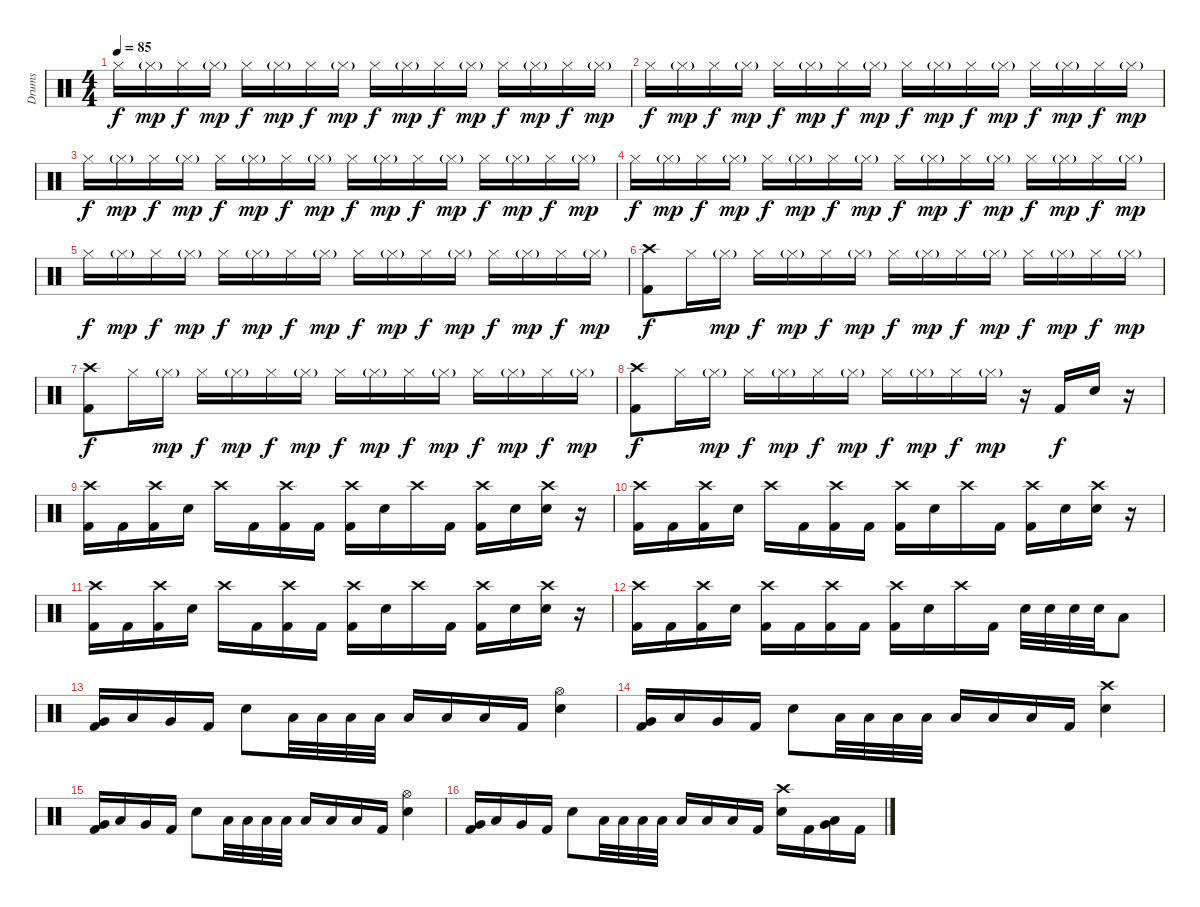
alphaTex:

\track ("Drums" "Drums") {instrument percussion}
\staff {score}
\articulation defaults
\ts (4 4)
\tempo 85
\clef neutral
\ks c "Hi-Hat (closed)".16{dy f} "Hi-Hat (closed)"{g}.16{dy mp} "Hi-Hat (closed)".16{dy f} "Hi-Hat (closed)"{g}.16{dy mp} "Hi-Hat (closed)".16{dy f} "Hi-Hat (closed)"{g}.16{dy mp} "Hi-Hat (closed)".16{dy f} "Hi-Hat (closed)"{g}.16{dy mp} "Hi-Hat (closed)".16{dy f} "Hi-Hat (closed)"{g}.16{dy mp} "Hi-Hat (closed)".16{dy f} "Hi-Hat (closed)"{g}.16{dy mp} "Hi-Hat (closed)".16{dy f} "Hi-Hat (closed)"{g}.16{dy mp} "Hi-Hat (closed)".16{dy f} "Hi-Hat (closed)"{g}.16{dy mp}
|
"Hi-Hat (closed)".16{dy f} "Hi-Hat (closed)"{g}.16{dy mp} "Hi-Hat (closed)".16{dy f} "Hi-Hat (closed)"{g}.16{dy mp} "Hi-Hat (closed)".16{dy f} "Hi-Hat (closed)"{g}.16{dy mp} "Hi-Hat (closed)".16{dy f} "Hi-Hat (closed)"{g}.16{dy mp} "Hi-Hat (closed)".16{dy f} "Hi-Hat (closed)"{g}.16{dy mp} "Hi-Hat (closed)".16{dy f} "Hi-Hat (closed)"{g}.16{dy mp} "Hi-Hat (closed)".16{dy f} "Hi-Hat (closed)"{g}.16{dy mp} "Hi-Hat (closed)".16{dy f} "Hi-Hat (closed)"{g}.16{dy mp} |
"Hi-Hat (closed)".16{dy f} "Hi-Hat (closed)"{g}.16{dy mp} "Hi-Hat (closed)".16{dy f} "Hi-Hat (closed)"{g}.16{dy mp} "Hi-Hat (closed)".16{dy f} "Hi-Hat (closed)"{g}.16{dy mp} "Hi-Hat (closed)".16{dy f} "Hi-Hat (closed)"{g}.16{dy mp} "Hi-Hat (closed)".16{dy f} "Hi-Hat (closed)"{g}.16{dy mp} "Hi-Hat (closed)".16{dy f} "Hi-Hat (closed)"{g}.16{dy mp} "Hi-Hat (closed)".16{dy f} "Hi-Hat (closed)"{g}.16{dy mp} "Hi-Hat (closed)".16{dy f} "Hi-Hat (closed)"{g}.16{dy mp} |
"Hi-Hat (closed)".16{dy f} "Hi-Hat (closed)"{g}.16{dy mp} "Hi-Hat (closed)".16{dy f} "Hi-Hat (closed)"{g}.16{dy mp} "Hi-Hat (closed)".16{dy f} "Hi-Hat (closed)"{g}.16{dy mp} "Hi-Hat (closed)".16{dy f} "Hi-Hat (closed)"{g}.16{dy mp} "Hi-Hat (closed)".16{dy f} "Hi-Hat (closed)"{g}.16{dy mp} "Hi-Hat (closed)".16{dy f} "Hi-Hat (closed)"{g}.16{dy mp} "Hi-Hat (closed)".16{dy f} "Hi-Hat (closed)"{g}.16{dy mp} "Hi-Hat (closed)".16{dy f} "Hi-Hat (closed)"{g}.16{dy mp} |
"Hi-Hat (closed)".16{dy f} "Hi-Hat (closed)"{g}.16{dy mp} "Hi-Hat (closed)".16{dy f} "Hi-Hat (closed)"{g}.16{dy mp} "Hi-Hat (closed)".16{dy f} "Hi-Hat (closed)"{g}.16{dy mp} "Hi-Hat (closed)".16{dy f} "Hi-Hat (closed)"{g}.16{dy mp} "Hi-Hat (closed)".16{dy f} "Hi-Hat (closed)"{g}.16{dy mp} "Hi-Hat (closed)".16{dy f} "Hi-Hat (closed)"{g}.16{dy mp} "Hi-Hat (closed)".16{dy f} "Hi-Hat (closed)"{g}.16{dy mp} "Hi-Hat (closed)".16{dy f} "Hi-Hat (closed)"{g}.16{dy mp} |
("Crash high (hit)" "Kick (hit) 2").8{dy f} "Hi-Hat (closed)".16 "Hi-Hat (closed)"{g}.16{dy mp} "Hi-Hat (closed)".16{dy f} "Hi-Hat (closed)"{g}.16{dy mp} "Hi-Hat (closed)".16{dy f} "Hi-Hat (closed)"{g}.16{dy mp} "Hi-Hat (closed)".16{dy f} "Hi-Hat (closed)"{g}.16{dy mp} "Hi-Hat (closed)".16{dy f} "Hi-Hat (closed)"{g}.16{dy mp} "Hi-Hat (closed)".16{dy f} "Hi-Hat (closed)"{g}.16{dy mp} "Hi-Hat (closed)".16{dy f} "Hi-Hat (closed)"{g}.16{dy mp} |
("Crash high (hit)" "Kick (hit) 2").8{dy f} "Hi-Hat (closed)".16 "Hi-Hat (closed)"{g}.16{dy mp} "Hi-Hat (closed)".16{dy f} "Hi-Hat (closed)"{g}.16{dy mp} "Hi-Hat (closed)".16{dy f} "Hi-Hat (closed)"{g}.16{dy mp} "Hi-Hat (closed)".16{dy f} "Hi-Hat (closed)"{g}.16{dy mp} "Hi-Hat (closed)".16{dy f} "Hi-Hat (closed)"{g}.16{dy mp} "Hi-Hat (closed)".16{dy f} "Hi-Hat (closed)"{g}.16{dy mp} "Hi-Hat (closed)".16{dy f} "Hi-Hat (closed)"{g}.16{dy mp} |
("Crash high (hit)" "Kick (hit) 2").8{dy f} "Hi-Hat (closed)".16 "Hi-Hat (closed)"{g}.16{dy mp} "Hi-Hat (closed)".16{dy f} "Hi-Hat (closed)"{g}.16{dy mp} "Hi-Hat (closed)".16{dy f} "Hi-Hat (closed)"{g}.16{dy mp} "Hi-Hat (closed)".16{dy f} "Hi-Hat (closed)"{g}.16{dy mp} "Hi-Hat (closed)".16{dy f} "Hi-Hat (closed)"{g}.16{dy mp} r.16 "Kick (hit) 2".16{dy f} "Electric Snare (hit)".16 r.16 |
("Crash high (hit)" "Kick (hit) 2").16 "Kick (hit) 2".16 ("Crash high (hit)" "Kick (hit) 2").16 "Electric Snare (hit)".16 "Crash high (hit)".16 "Kick (hit) 2".16 ("Crash high (hit)" "Kick (hit) 2").16 "Kick (hit) 2".16 ("Crash high (hit)" "Kick (hit) 2").16 "Electric Snare (hit)".16 "Crash high (hit)".16 "Kick (hit) 2".16 ("Crash high (hit)" "Kick (hit) 2").16 "Electric Snare (hit)".16 ("Crash high (hit)" "Electric Snare (hit)").16 r.16 |
("Crash high (hit)" "Kick (hit) 2").16 "Kick (hit) 2".16 ("Crash high (hit)" "Kick (hit) 2").16 "Electric Snare (hit)".16 "Crash high (hit)".16 "Kick (hit) 2".16 ("Crash high (hit)" "Kick (hit) 2").16 "Kick (hit) 2".16 ("Crash high (hit)" "Kick (hit) 2").16 "Electric Snare (hit)".16 "Crash high (hit)".16 "Kick (hit) 2".16 ("Crash high (hit)" "Kick (hit) 2").16 "Electric Snare (hit)".16 ("Crash high (hit)" "Electric Snare (hit)").16 r.16 |
("Crash high (hit)" "Kick (hit) 2").16 "Kick (hit) 2".16 ("Crash high (hit)" "Kick (hit) 2").16 "Electric Snare (hit)".16 "Crash high (hit)".16 "Kick (hit) 2".16 ("Crash high (hit)" "Kick (hit) 2").16 "Kick (hit) 2".16 ("Crash high (hit)" "Kick (hit) 2").16 "Electric Snare (hit)".16 "Crash high (hit)".16 "Kick (hit) 2".16 ("Crash high (hit)" "Kick (hit) 2").16 "Electric Snare (hit)".16 ("Crash high (hit)" "Electric Snare (hit)").16 r.16 |
("Crash high (hit)" "Kick (hit) 2").16 "Kick (hit) 2".16 ("Crash high (hit)" "Kick (hit) 2").16 "Electric Snare (hit)".16 ("Crash high (hit)" "Kick (hit) 2").16 "Kick (hit) 2".16 ("Crash high (hit)" "Kick (hit) 2").16 "Kick (hit) 2".16 ("Crash high (hit)" "Kick (hit) 2").16 "Electric Snare (hit)".16 "Crash high (hit)".16 "Kick (hit) 2".16 "Electric Snare (hit)".32 "Electric Snare (hit)".32 "Electric Snare (hit)".32 "Electric Snare (hit)".32 "Low Tom (hit)".8 |
("Very Low Tom (hit)" "Kick (hit) 2").16 "Low Tom (hit)".16 "Very Low Tom (hit)".16 "Kick (hit) 2".16 "Electric Snare (hit)".8 "Low Tom (hit)".32 "Low Tom (hit)".32 "Low Tom (hit)".32 "Low Tom (hit)".32 "Low Tom (hit)".16 "Low Tom (hit)".16 "Low Floor Tom (hit)".16 "Kick (hit) 2".16 ("Hi-Hat (open)" "Electric Snare (hit)").4 |
("Very Low Tom (hit)" "Kick (hit) 2").16 "Low Tom (hit)".16 "Very Low Tom (hit)".16 "Kick (hit) 2".16 "Electric Snare (hit)".8 "Low Tom (hit)".32 "Low Tom (hit)".32 "Low Tom (hit)".32 "Low Tom (hit)".32 "Low Tom (hit)".16 "Low Tom (hit)".16 "Low Floor Tom (hit)".16 "Kick (hit) 2".16 ("Crash high (hit)" "Electric Snare (hit)").4 |
("Very Low Tom (hit)" "Kick (hit) 2").16 "Low Tom (hit)".16 "Very Low Tom (hit)".16 "Kick (hit) 2".16 "Electric Snare (hit)".8 "Low Tom (hit)".32 "Low Tom (hit)".32 "Low Tom (hit)".32 "Low Tom (hit)".32 "Low Tom (hit)".16 "Low Tom (hit)".16 "Low Floor Tom (hit)".16 "Kick (hit) 2".16 ("Hi-Hat (open)" "Electric Snare (hit)").4 |
("Very Low Tom (hit)" "Kick (hit) 2").16 "Low Tom (hit)".16 "Very Low Tom (hit)".16 "Kick (hit) 2".16 "Electric Snare (hit)".8 "Low Tom (hit)".32 "Low Tom (hit)".32 "Low Tom (hit)".32 "Low Tom (hit)".32 "Low Tom (hit)".16 "Low Tom (hit)".16 "Low Floor Tom (hit)".16 "Kick (hit) 2".16 ("Crash high (hit)" "Electric Snare (hit)").16 "Kick (hit) 2".16 ("Low Tom (hit)" "Very Low Tom (hit)").16 "Kick (hit) 2".16
